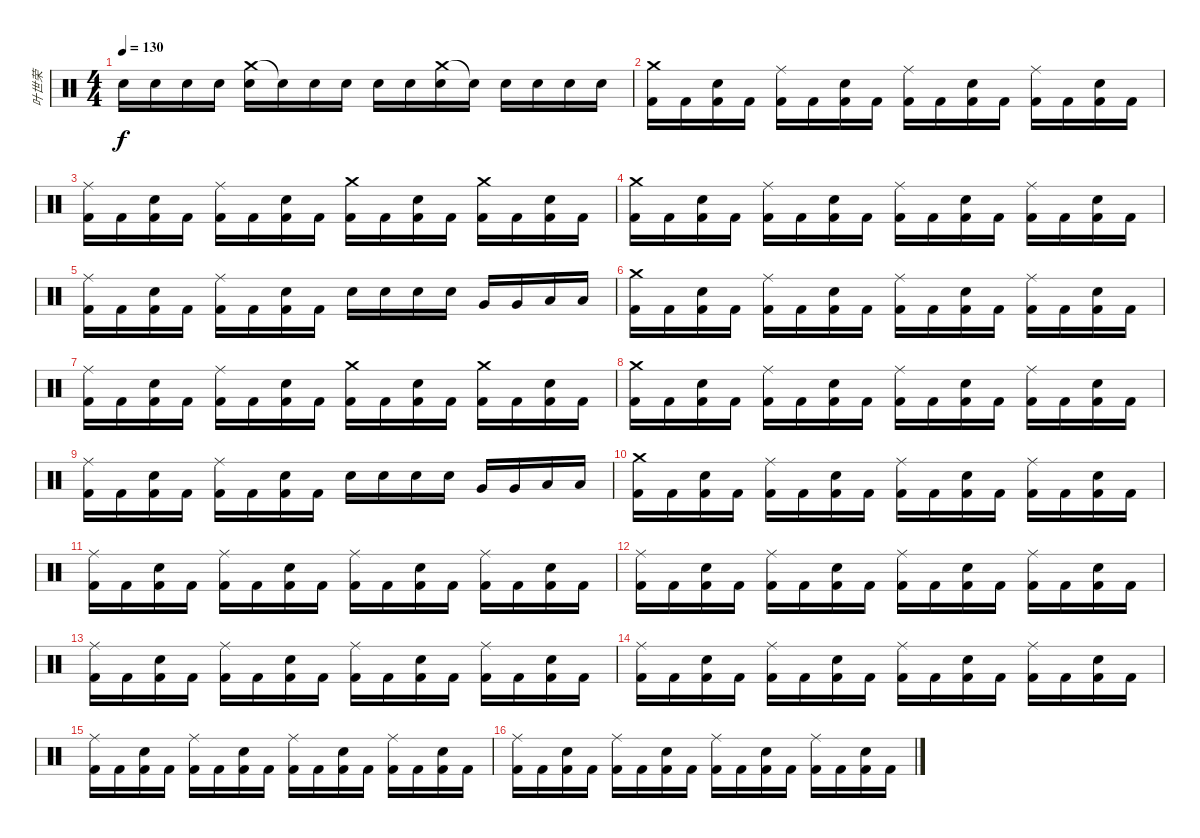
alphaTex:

\track ("叶世荣" "叶世荣") {instrument percussion}
\staff {score}
\articulation defaults
\ts (4 4)
\tempo 130
\clef neutral
\ks c "Snare (hit) 2".16{dy f} "Snare (hit) 2".16 "Snare (hit) 2".16 "Snare (hit) 2".16
("Crash medium (hit)" "Snare (hit) 2").16 "Snare (hit)"{t}.16 "Snare (hit) 2".16 "Snare (hit) 2".16 "Snare (hit) 2".16 "Snare (hit) 2".16 ("Crash medium (hit)" "Snare (hit) 2").16 "Snare (hit)"{t}.16 "Snare (hit) 2".16 "Snare (hit) 2".16 "Snare (hit) 2".16 "Snare (hit) 2".16 |
("Crash medium (hit)" "Kick (hit) 2").16 "Kick (hit) 2".16 ("Snare (hit) 2" "Kick (hit) 2").16 "Kick (hit) 2".16 ("Ride (middle)" "Kick (hit) 2").16 "Kick (hit) 2".16 ("Snare (hit) 2" "Kick (hit) 2").16 "Kick (hit) 2".16 ("Ride (middle)" "Kick (hit) 2").16 "Kick (hit) 2".16 ("Snare (hit) 2" "Kick (hit) 2").16 "Kick (hit) 2".16 ("Ride (middle)" "Kick (hit) 2").16 "Kick (hit) 2".16 ("Snare (hit) 2" "Kick (hit) 2").16 "Kick (hit) 2".16 |
("Ride (middle)" "Kick (hit) 2").16 "Kick (hit) 2".16 ("Snare (hit) 2" "Kick (hit) 2").16 "Kick (hit) 2".16 ("Ride (middle)" "Kick (hit) 2").16 "Kick (hit) 2".16 ("Snare (hit) 2" "Kick (hit) 2").16 "Kick (hit) 2".16 ("Crash medium (hit)" "Kick (hit) 2").16 "Kick (hit) 2".16 ("Snare (hit) 2" "Kick (hit) 2").16 "Kick (hit) 2".16 ("Crash medium (hit)" "Kick (hit) 2").16 "Kick (hit) 2".16 ("Snare (hit) 2" "Kick (hit) 2").16 "Kick (hit) 2".16 |
("Crash medium (hit)" "Kick (hit) 2").16 "Kick (hit) 2".16 ("Snare (hit) 2" "Kick (hit) 2").16 "Kick (hit) 2".16 ("Ride (middle)" "Kick (hit) 2").16 "Kick (hit) 2".16 ("Snare (hit) 2" "Kick (hit) 2").16 "Kick (hit) 2".16 ("Ride (middle)" "Kick (hit) 2").16 "Kick (hit) 2".16 ("Snare (hit) 2" "Kick (hit) 2").16 "Kick (hit) 2".16 ("Ride (middle)" "Kick (hit) 2").16 "Kick (hit) 2".16 ("Snare (hit) 2" "Kick (hit) 2").16 "Kick (hit) 2".16 |
("Ride (middle)" "Kick (hit) 2").16 "Kick (hit) 2".16 ("Snare (hit) 2" "Kick (hit) 2").16 "Kick (hit) 2".16 ("Ride (middle)" "Kick (hit) 2").16 "Kick (hit) 2".16 ("Snare (hit) 2" "Kick (hit) 2").16 "Kick (hit) 2".16 "Snare (hit) 2".16 "Snare (hit) 2".16 "Snare (hit) 2".16 "Snare (hit) 2".16 "Very Low Tom (hit)".16 "Very Low Tom (hit)".16 "Low Floor Tom (hit)".16 "Low Floor Tom (hit)".16 |
("Crash medium (hit)" "Kick (hit) 2").16 "Kick (hit) 2".16 ("Snare (hit) 2" "Kick (hit) 2").16 "Kick (hit) 2".16 ("Ride (middle)" "Kick (hit) 2").16 "Kick (hit) 2".16 ("Snare (hit) 2" "Kick (hit) 2").16 "Kick (hit) 2".16 ("Ride (middle)" "Kick (hit) 2").16 "Kick (hit) 2".16 ("Snare (hit) 2" "Kick (hit) 2").16 "Kick (hit) 2".16 ("Ride (middle)" "Kick (hit) 2").16 "Kick (hit) 2".16 ("Snare (hit) 2" "Kick (hit) 2").16 "Kick (hit) 2".16 |
("Ride (middle)" "Kick (hit) 2").16 "Kick (hit) 2".16 ("Snare (hit) 2" "Kick (hit) 2").16 "Kick (hit) 2".16 ("Ride (middle)" "Kick (hit) 2").16 "Kick (hit) 2".16 ("Snare (hit) 2" "Kick (hit) 2").16 "Kick (hit) 2".16 ("Crash medium (hit)" "Kick (hit) 2").16 "Kick (hit) 2".16 ("Snare (hit) 2" "Kick (hit) 2").16 "Kick (hit) 2".16 ("Crash medium (hit)" "Kick (hit) 2").16 "Kick (hit) 2".16 ("Snare (hit) 2" "Kick (hit) 2").16 "Kick (hit) 2".16 |
("Crash medium (hit)" "Kick (hit) 2").16 "Kick (hit) 2".16 ("Snare (hit) 2" "Kick (hit) 2").16 "Kick (hit) 2".16 ("Ride (middle)" "Kick (hit) 2").16 "Kick (hit) 2".16 ("Snare (hit) 2" "Kick (hit) 2").16 "Kick (hit) 2".16 ("Ride (middle)" "Kick (hit) 2").16 "Kick (hit) 2".16 ("Snare (hit) 2" "Kick (hit) 2").16 "Kick (hit) 2".16 ("Ride (middle)" "Kick (hit) 2").16 "Kick (hit) 2".16 ("Snare (hit) 2" "Kick (hit) 2").16 "Kick (hit) 2".16 |
("Ride (middle)" "Kick (hit) 2").16 "Kick (hit) 2".16 ("Snare (hit) 2" "Kick (hit) 2").16 "Kick (hit) 2".16 ("Ride (middle)" "Kick (hit) 2").16 "Kick (hit) 2".16 ("Snare (hit) 2" "Kick (hit) 2").16 "Kick (hit) 2".16 "Snare (hit) 2".16 "Snare (hit) 2".16 "Snare (hit) 2".16 "Snare (hit) 2".16 "Very Low Tom (hit)".16 "Very Low Tom (hit)".16 "Low Floor Tom (hit)".16 "Low Floor Tom (hit)".16 |
("Crash medium (hit)" "Kick (hit) 2").16 "Kick (hit) 2".16 ("Snare (hit) 2" "Kick (hit) 2").16 "Kick (hit) 2".16 ("Ride (middle)" "Kick (hit) 2").16 "Kick (hit) 2".16 ("Snare (hit) 2" "Kick (hit) 2").16 "Kick (hit) 2".16 ("Ride (middle)" "Kick (hit) 2").16 "Kick (hit) 2".16 ("Snare (hit) 2" "Kick (hit) 2").16 "Kick (hit) 2".16 ("Ride (middle)" "Kick (hit) 2").16 "Kick (hit) 2".16 ("Snare (hit) 2" "Kick (hit) 2").16 "Kick (hit) 2".16 |
("Ride (middle)" "Kick (hit) 2").16 "Kick (hit) 2".16 ("Snare (hit) 2" "Kick (hit) 2").16 "Kick (hit) 2".16 ("Ride (middle)" "Kick (hit) 2").16 "Kick (hit) 2".16 ("Snare (hit) 2" "Kick (hit) 2").16 "Kick (hit) 2".16 ("Ride (middle)" "Kick (hit) 2").16 "Kick (hit) 2".16 ("Snare (hit) 2" "Kick (hit) 2").16 "Kick (hit) 2".16 ("Ride (middle)" "Kick (hit) 2").16 "Kick (hit) 2".16 ("Snare (hit) 2" "Kick (hit) 2").16 "Kick (hit) 2".16 |
("Ride (middle)" "Kick (hit) 2").16 "Kick (hit) 2".16 ("Snare (hit) 2" "Kick (hit) 2").16 "Kick (hit) 2".16 ("Ride (middle)" "Kick (hit) 2").16 "Kick (hit) 2".16 ("Snare (hit) 2" "Kick (hit) 2").16 "Kick (hit) 2".16 ("Ride (middle)" "Kick (hit) 2").16 "Kick (hit) 2".16 ("Snare (hit) 2" "Kick (hit) 2").16 "Kick (hit) 2".16 ("Ride (middle)" "Kick (hit) 2").16 "Kick (hit) 2".16 ("Snare (hit) 2" "Kick (hit) 2").16 "Kick (hit) 2".16 |
("Ride (middle)" "Kick (hit) 2").16 "Kick (hit) 2".16 ("Snare (hit) 2" "Kick (hit) 2").16 "Kick (hit) 2".16 ("Ride (middle)" "Kick (hit) 2").16 "Kick (hit) 2".16 ("Snare (hit) 2" "Kick (hit) 2").16 "Kick (hit) 2".16 ("Ride (middle)" "Kick (hit) 2").16 "Kick (hit) 2".16 ("Snare (hit) 2" "Kick (hit) 2").16 "Kick (hit) 2".16 ("Ride (middle)" "Kick (hit) 2").16 "Kick (hit) 2".16 ("Snare (hit) 2" "Kick (hit) 2").16 "Kick (hit) 2".16 |
("Ride (middle)" "Kick (hit) 2").16 "Kick (hit) 2".16 ("Snare (hit) 2" "Kick (hit) 2").16 "Kick (hit) 2".16 ("Ride (middle)" "Kick (hit) 2").16 "Kick (hit) 2".16 ("Snare (hit) 2" "Kick (hit) 2").16 "Kick (hit) 2".16 ("Ride (middle)" "Kick (hit) 2").16 "Kick (hit) 2".16 ("Snare (hit) 2" "Kick (hit) 2").16 "Kick (hit) 2".16 ("Ride (middle)" "Kick (hit) 2").16 "Kick (hit) 2".16 ("Snare (hit) 2" "Kick (hit) 2").16 "Kick (hit) 2".16 |
("Ride (middle)" "Kick (hit) 2").16 "Kick (hit) 2".16 ("Snare (hit) 2" "Kick (hit) 2").16 "Kick (hit) 2".16 ("Ride (middle)" "Kick (hit) 2").16 "Kick (hit) 2".16 ("Snare (hit) 2" "Kick (hit) 2").16 "Kick (hit) 2".16 ("Ride (middle)" "Kick (hit) 2").16 "Kick (hit) 2".16 ("Snare (hit) 2" "Kick (hit) 2").16 "Kick (hit) 2".16 ("Ride (middle)" "Kick (hit) 2").16 "Kick (hit) 2".16 ("Snare (hit) 2" "Kick (hit) 2").16 "Kick (hit) 2".16 |
("Ride (middle)" "Kick (hit) 2").16 "Kick (hit) 2".16 ("Snare (hit) 2" "Kick (hit) 2").16 "Kick (hit) 2".16 ("Ride (middle)" "Kick (hit) 2").16 "Kick (hit) 2".16 ("Snare (hit) 2" "Kick (hit) 2").16 "Kick (hit) 2".16 ("Ride (middle)" "Kick (hit) 2").16 "Kick (hit) 2".16 ("Snare (hit) 2" "Kick (hit) 2").16 "Kick (hit) 2".16 ("Ride (middle)" "Kick (hit) 2").16 "Kick (hit) 2".16 ("Snare (hit) 2" "Kick (hit) 2").16 "Kick (hit) 2".16
